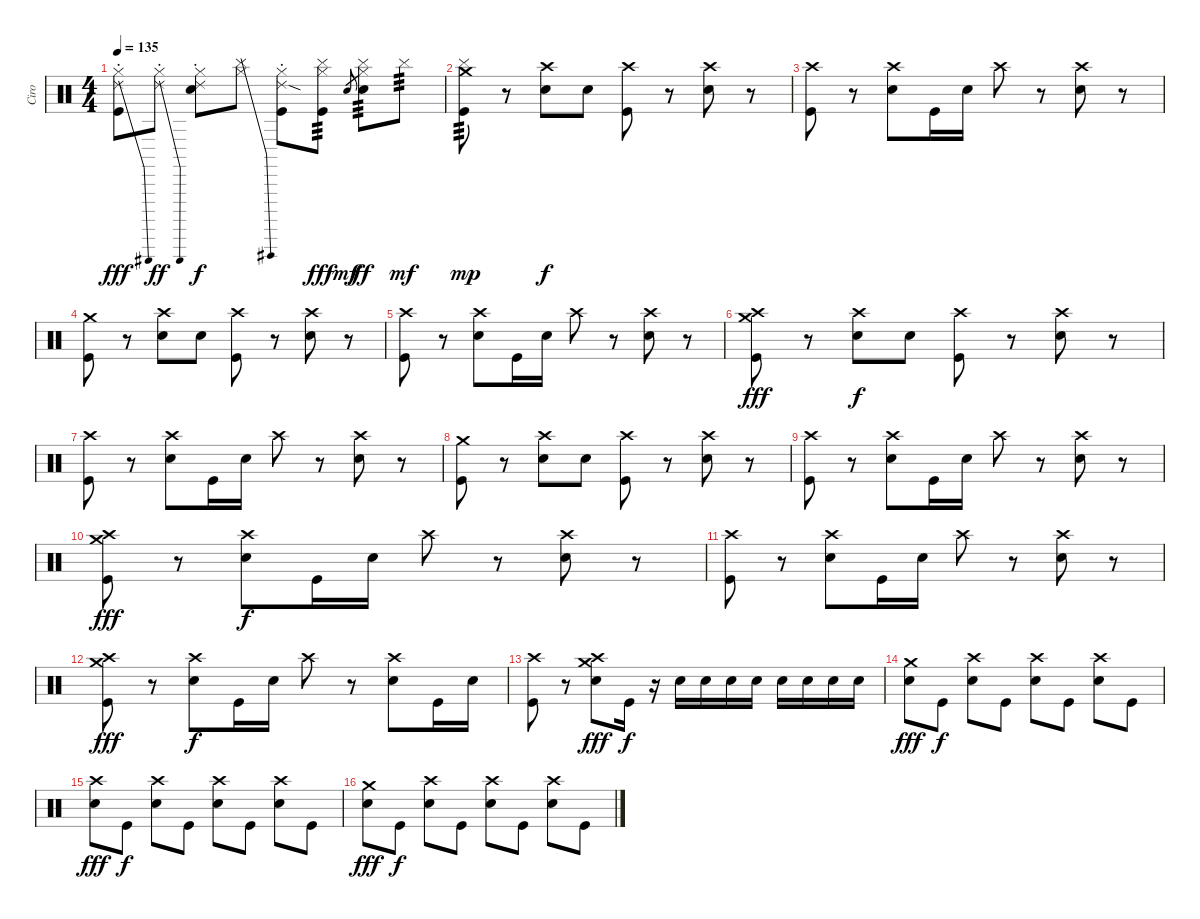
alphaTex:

\track ("Ciro" "Ciro") {instrument percussion}
\staff {score}
\articulation defaults
\ts (4 4)
\tempo 135
\clef neutral
\ks c
("Hi-Hat (closed)" "Kick (hit)" "Ride (choke) 2"{be (bend 0 0 60 12)}).8{dy fff} ("Hi-Hat (closed)" "Ride (choke) 2"{be (bend 0 0 60 12)}).8{dy ff} ("Hi-Hat (closed)" "Electric Snare (hit)" "Ride (choke) 2"{be (custom 0 0 10 4 20 4 30 0 40 0 50 4 60 4)}).8{dy f} ("Hi-Hat (closed)" "Cymbal (hit)"{be (bend 0 0 60 12)}).8 ("Hi-Hat (closed)" "Kick (hit)" "Ride (choke) 2"{sod}).8 ("Hi-Hat (closed)" "Kick (hit)" "Cymbal (hit)").8{tp 3 dy fff} "Snare (hit) 2".8{gr dy mf} ("Hi-Hat (closed)" "Electric Snare (hit)" "Cymbal (hit)").8{tp 3 dy ff} "Cymbal (hit)".8{tp 3 dy mf} |
("Crash medium (hit)" "Kick (hit)" "Cymbal (hit)").8{tp 3 dy mp} r.8 ("Crash high (hit)" "Electric Snare (hit)").8{dy f} "Electric Snare (hit)".8 ("Crash high (hit)" "Kick (hit)").8 r.8 ("Crash high (hit)" "Electric Snare (hit)").8 r.8 |
("Crash high (hit)" "Kick (hit)").8 r.8 ("Crash high (hit)" "Electric Snare (hit)").8 "Kick (hit)".16 "Electric Snare (hit)".16 "Crash high (hit)".8 r.8 ("Crash high (hit)" "Electric Snare (hit)").8 r.8 |
("Crash medium (hit)" "Kick (hit)").8 r.8 ("Crash high (hit)" "Electric Snare (hit)").8 "Electric Snare (hit)".8 ("Crash high (hit)" "Kick (hit)").8 r.8 ("Crash high (hit)" "Electric Snare (hit)").8 r.8 |
("Crash high (hit)" "Kick (hit)").8 r.8 ("Crash high (hit)" "Electric Snare (hit)").8 "Kick (hit)".16 "Electric Snare (hit)".16 "Crash high (hit)".8 r.8 ("Crash high (hit)" "Electric Snare (hit)").8 r.8 |
("Crash medium (hit)" "Crash high (hit)" "Kick (hit)").8{dy fff} r.8 ("Crash high (hit)" "Electric Snare (hit)").8{dy f} "Electric Snare (hit)".8 ("Crash high (hit)" "Kick (hit)").8 r.8 ("Crash high (hit)" "Electric Snare (hit)").8 r.8 |
("Crash high (hit)" "Kick (hit)").8 r.8 ("Crash high (hit)" "Electric Snare (hit)").8 "Kick (hit)".16 "Electric Snare (hit)".16 "Crash high (hit)".8 r.8 ("Crash high (hit)" "Electric Snare (hit)").8 r.8 |
("Crash medium (hit)" "Kick (hit)").8 r.8 ("Crash high (hit)" "Electric Snare (hit)").8 "Electric Snare (hit)".8 ("Crash high (hit)" "Kick (hit)").8 r.8 ("Crash high (hit)" "Electric Snare (hit)").8 r.8 |
("Crash high (hit)" "Kick (hit)").8 r.8 ("Crash high (hit)" "Electric Snare (hit)").8 "Kick (hit)".16 "Electric Snare (hit)".16 "Crash high (hit)".8 r.8 ("Crash high (hit)" "Electric Snare (hit)").8 r.8 |
("Crash high (hit)" "Crash medium (hit)" "Kick (hit)").8{dy fff} r.8 ("Crash high (hit)" "Electric Snare (hit)").8{dy f} "Kick (hit)".16 "Electric Snare (hit)".16 "Crash high (hit)".8 r.8 ("Crash high (hit)" "Electric Snare (hit)").8 r.8 |
("Crash high (hit)" "Kick (hit)").8 r.8 ("Crash high (hit)" "Electric Snare (hit)").8 "Kick (hit)".16 "Electric Snare (hit)".16 "Crash high (hit)".8 r.8 ("Crash high (hit)" "Electric Snare (hit)").8 r.8 |
("Crash high (hit)" "Crash medium (hit)" "Kick (hit)").8{dy fff} r.8 ("Crash high (hit)" "Electric Snare (hit)").8{dy f} "Kick (hit)".16 "Electric Snare (hit)".16 "Crash high (hit)".8 r.8 ("Crash high (hit)" "Electric Snare (hit)").8 "Kick (hit)".16 "Electric Snare (hit)".16 |
("Crash high (hit)" "Kick (hit)").8 r.8 ("Crash high (hit)" "Electric Snare (hit)" "Crash medium (hit)").8{dy fff} "Kick (hit)".16{dy f} r.16 "Electric Snare (hit)".16 "Electric Snare (hit)".16 "Electric Snare (hit)".16 "Electric Snare (hit)".16 "Electric Snare (hit)".16 "Electric Snare (hit)".16 "Electric Snare (hit)".16 "Electric Snare (hit)".16 |
("Crash medium (hit)" "Electric Snare (hit)").8{dy fff} "Kick (hit)".8{dy f} ("Crash high (hit)" "Electric Snare (hit)").8 "Kick (hit)".8 ("Crash high (hit)" "Electric Snare (hit)").8 "Kick (hit)".8 ("Crash high (hit)" "Electric Snare (hit)").8 "Kick (hit)".8 |
("Crash high (hit)" "Electric Snare (hit)").8{dy fff} "Kick (hit)".8{dy f} ("Crash high (hit)" "Electric Snare (hit)").8 "Kick (hit)".8 ("Crash high (hit)" "Electric Snare (hit)").8 "Kick (hit)".8 ("Crash high (hit)" "Electric Snare (hit)").8 "Kick (hit)".8 |
("Crash medium (hit)" "Electric Snare (hit)").8{dy fff} "Kick (hit)".8{dy f} ("Crash high (hit)" "Electric Snare (hit)").8 "Kick (hit)".8 ("Crash high (hit)" "Electric Snare (hit)").8 "Kick (hit)".8 ("Crash high (hit)" "Electric Snare (hit)").8 "Kick (hit)".8
